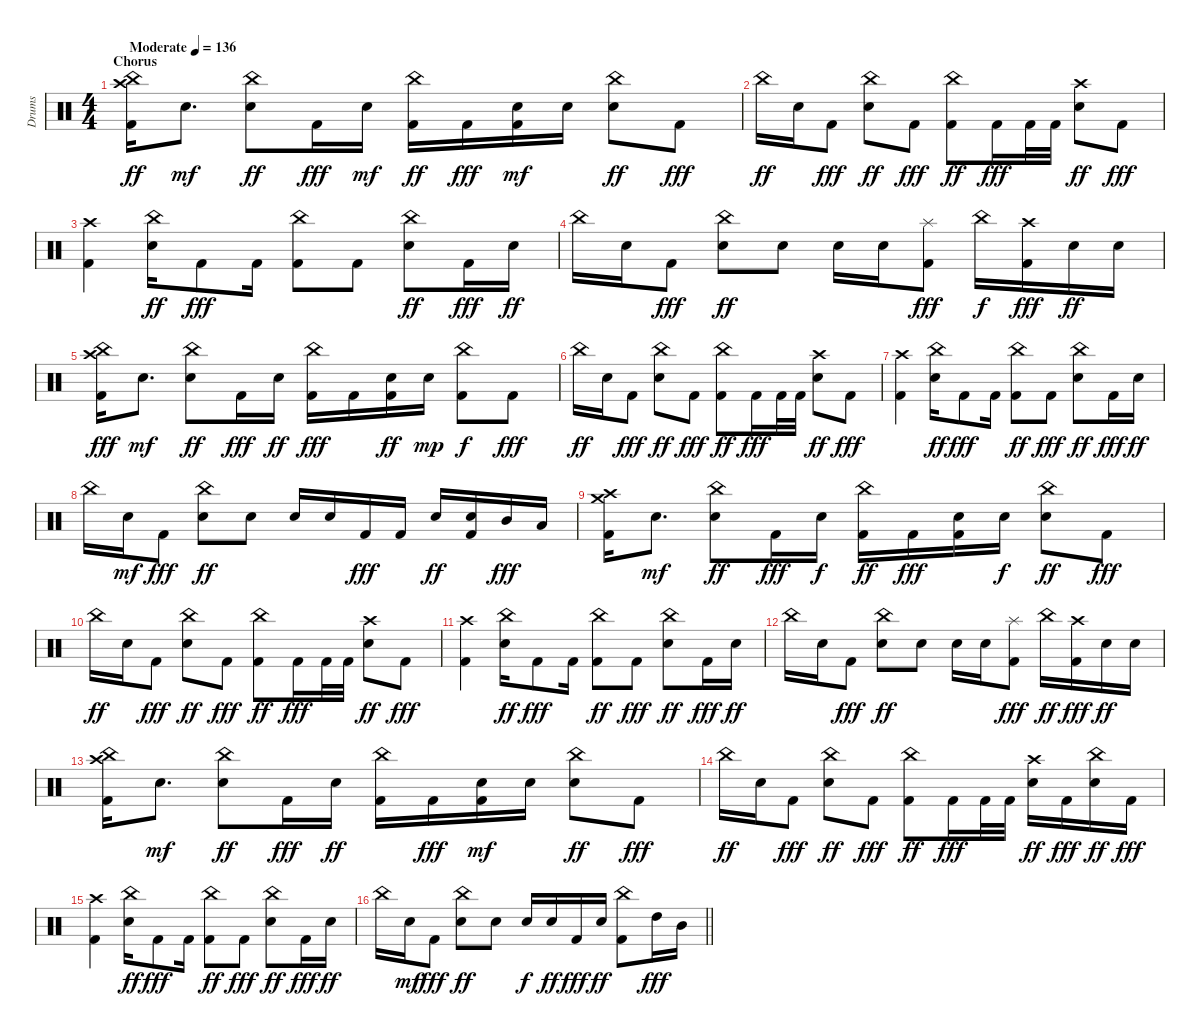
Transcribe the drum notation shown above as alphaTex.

\track ("Drums" "Drums") {instrument percussion}
\staff {score}
\articulation defaults
\ts (4 4)
\section ("" "Chorus")
\tempo (136 "Moderate")
\clef neutral
\ks c
("Kick (hit) 2" "China (hit)" "Crash high (hit)").16{dy ff} "Snare (hit) 2".8{d dy mf} ("Snare (hit) 2" "China (hit)").8{dy ff} "Kick (hit) 2".16{dy fff} "Snare (hit) 2".16{dy mf} ("Kick (hit) 2" "China (hit)").16{dy ff} "Kick (hit) 2".16{dy fff} ("Kick (hit) 2" "Snare (hit) 2").16{dy mf} "Snare (hit) 2".16 ("Snare (hit) 2" "China (hit)").8{dy ff} "Kick (hit) 2".8{dy fff} |
"China (hit)".16{dy ff} "Snare (hit) 2".16 "Kick (hit) 2".8{dy fff} ("Snare (hit) 2" "China (hit)").8{dy ff} "Kick (hit) 2".8{dy fff} ("Kick (hit) 2" "China (hit)").8{dy ff} "Kick (hit) 2".16{dy fff} "Kick (hit) 2".32 "Kick (hit) 2".32 ("Snare (hit) 2" "Crash high (hit)").8{dy ff} "Kick (hit) 2".8{dy fff} |
("Kick (hit) 2" "Crash high (hit)").4 ("Snare (hit) 2" "China (hit)").16{dy ff} "Kick (hit) 2".8{dy fff} "Kick (hit) 2".16 ("Kick (hit) 2" "China (hit)").8 "Kick (hit) 2".8 ("Snare (hit) 2" "China (hit)").8{dy ff} "Kick (hit) 2".16{dy fff} "Snare (hit) 2".16{dy ff} |
"China (hit)".16 "Snare (hit) 2".16 "Kick (hit) 2".8{dy fff} ("Snare (hit) 2" "China (hit)").8{dy ff} "Snare (hit) 2".8 "Snare (hit) 2".16 "Snare (hit) 2".16 ("Kick (hit) 2" "Splash (hit)").8{dy fff} "China (hit)".16{dy f} ("Kick (hit) 2" "Crash high (hit)").16{dy fff} "Snare (hit) 2".16{dy ff} "Snare (hit) 2".16 |
("Kick (hit) 2" "China (hit)" "Crash high (hit)").16{dy fff} "Snare (hit) 2".8{d dy mf} ("Snare (hit) 2" "China (hit)").8{dy ff} "Kick (hit) 2".16{dy fff} "Snare (hit) 2".16{dy ff} ("Kick (hit) 2" "China (hit)").16{dy fff} "Kick (hit) 2".16 ("Kick (hit) 2" "Snare (hit) 2").16{dy ff} "Snare (hit) 2".16{dy mp} ("Kick (hit) 2" "China (hit)").8{dy f} "Kick (hit) 2".8{dy fff} |
"China (hit)".16{dy ff} "Snare (hit) 2".16 "Kick (hit) 2".8{dy fff} ("Snare (hit) 2" "China (hit)").8{dy ff} "Kick (hit) 2".8{dy fff} ("Kick (hit) 2" "China (hit)").8{dy ff} "Kick (hit) 2".16{dy fff} "Kick (hit) 2".32 "Kick (hit) 2".32 ("Snare (hit) 2" "Crash high (hit)").8{dy ff} "Kick (hit) 2".8{dy fff} |
("Kick (hit) 2" "Crash high (hit)").4 ("Snare (hit) 2" "China (hit)").16{dy ff} "Kick (hit) 2".8{dy fff} "Kick (hit) 2".16 ("Kick (hit) 2" "China (hit)").8{dy ff} "Kick (hit) 2".8{dy fff} ("Snare (hit) 2" "China (hit)").8{dy ff} "Kick (hit) 2".16{dy fff} "Snare (hit) 2".16{dy ff} |
"China (hit)".16 "Snare (hit) 2".16{dy mf} "Kick (hit) 2".8{dy fff} ("Snare (hit) 2" "China (hit)").8{dy ff} "Snare (hit) 2".8 "Snare (hit) 2".16 "Snare (hit) 2".16 "Kick (hit) 2".16{dy fff} "Kick (hit) 2".16 "Snare (hit) 2".16{dy ff} ("Kick (hit) 2" "Snare (hit) 2").16 "Mid Tom (hit)".16{dy fff} "Low Tom (hit)".16 |
("Kick (hit) 2" "Crash high (hit)" "Crash medium (hit)").16 "Snare (hit) 2".8{d dy mf} ("Snare (hit) 2" "China (hit)").8{dy ff} "Kick (hit) 2".16{dy fff} "Snare (hit) 2".16{dy f} ("Kick (hit) 2" "China (hit)").16{dy ff} "Kick (hit) 2".16{dy fff} ("Kick (hit) 2" "Snare (hit) 2").16 "Snare (hit) 2".16{dy f} ("Snare (hit) 2" "China (hit)").8{dy ff} "Kick (hit) 2".8{dy fff} |
"China (hit)".16{dy ff} "Snare (hit) 2".16 "Kick (hit) 2".8{dy fff} ("Snare (hit) 2" "China (hit)").8{dy ff} "Kick (hit) 2".8{dy fff} ("Kick (hit) 2" "China (hit)").8{dy ff} "Kick (hit) 2".16{dy fff} "Kick (hit) 2".32 "Kick (hit) 2".32 ("Snare (hit) 2" "Crash high (hit)").8{dy ff} "Kick (hit) 2".8{dy fff} |
("Kick (hit) 2" "Crash high (hit)").4 ("Snare (hit) 2" "China (hit)").16{dy ff} "Kick (hit) 2".8{dy fff} "Kick (hit) 2".16 ("Kick (hit) 2" "China (hit)").8{dy ff} "Kick (hit) 2".8{dy fff} ("Snare (hit) 2" "China (hit)").8{dy ff} "Kick (hit) 2".16{dy fff} "Snare (hit) 2".16{dy ff} |
"China (hit)".16 "Snare (hit) 2".16 "Kick (hit) 2".8{dy fff} ("Snare (hit) 2" "China (hit)").8{dy ff} "Snare (hit) 2".8 "Snare (hit) 2".16 "Snare (hit) 2".16 ("Kick (hit) 2" "Splash (hit)").8{dy fff} "China (hit)".16{dy ff} ("Kick (hit) 2" "Crash high (hit)").16{dy fff} "Snare (hit) 2".16{dy ff} "Snare (hit) 2".16 |
("Kick (hit) 2" "Crash high (hit)" "China (hit)").16 "Snare (hit) 2".8{d dy mf} ("Snare (hit) 2" "China (hit)").8{dy ff} "Kick (hit) 2".16{dy fff} "Snare (hit) 2".16{dy ff} ("Kick (hit) 2" "China (hit)").16 "Kick (hit) 2".16{dy fff} ("Kick (hit) 2" "Snare (hit) 2").16{dy mf} "Snare (hit) 2".16 ("Snare (hit) 2" "China (hit)").8{dy ff} "Kick (hit) 2".8{dy fff} |
"China (hit)".16{dy ff} "Snare (hit) 2".16 "Kick (hit) 2".8{dy fff} ("Snare (hit) 2" "China (hit)").8{dy ff} "Kick (hit) 2".8{dy fff} ("Kick (hit) 2" "China (hit)").8{dy ff} "Kick (hit) 2".16{dy fff} "Kick (hit) 2".32 "Kick (hit) 2".32 ("Snare (hit) 2" "Crash high (hit)").16{dy ff} "Kick (hit) 2".16{dy fff} ("Snare (hit) 2" "China (hit)").16{dy ff} "Kick (hit) 2".16{dy fff} |
("Kick (hit) 2" "Crash high (hit)").4 ("Snare (hit) 2" "China (hit)").16{dy ff} "Kick (hit) 2".8{dy fff} "Kick (hit) 2".16 ("Kick (hit) 2" "China (hit)").8{dy ff} "Kick (hit) 2".8{dy fff} ("Snare (hit) 2" "China (hit)").8{dy ff} "Kick (hit) 2".16{dy fff} "Snare (hit) 2".16{dy ff} |
\barLineRight lightlight "China (hit)".16 "Snare (hit) 2".16{dy mf} "Kick (hit) 2".8{dy fff}
("Snare (hit) 2" "China (hit)").8{dy ff} "Snare (hit) 2".8 "Snare (hit) 2".16{dy f} "Snare (hit) 2".16{dy ff} "Kick (hit) 2".16{dy fff} "Snare (hit) 2".16{dy ff} ("Kick (hit) 2" "China (hit)").8 "High Tom (hit)".16{dy fff} "Mid Tom (hit)".16
